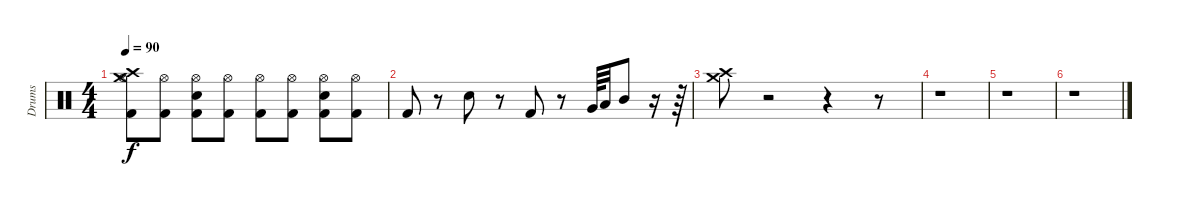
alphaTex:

\track ("Drums" "Drums") {instrument percussion}
\staff {score}
\articulation defaults
\ts (4 4)
\tempo 90
\clef neutral
\ks c
("Crash high (hit)" "Crash medium (hit)" "Hi-Hat (open)" "Kick (hit) 2").8{dy f} ("Hi-Hat (open)" "Kick (hit) 2").8 ("Hi-Hat (open)" "Kick (hit) 2" "Snare (hit) 2").8 ("Hi-Hat (open)" "Kick (hit) 2").8 ("Hi-Hat (open)" "Kick (hit) 2").8 ("Kick (hit) 2" "Hi-Hat (open)").8 ("Kick (hit) 2" "Hi-Hat (open)" "Snare (hit) 2").8 ("Hi-Hat (open)" "Kick (hit) 2").8 |
"Kick (hit) 2".8 r.8 "Snare (hit) 2".8 r.8 "Kick (hit) 2".8 r.8 "Very Low Tom (hit)".64 "Low Tom (hit)".32 "Mid Tom (hit)".8 r.16 r.64 |
("Crash high (hit)" "Crash medium (hit)").8 r.2 r.4 r.8 |
r.1 |
r.1 |
r.1
